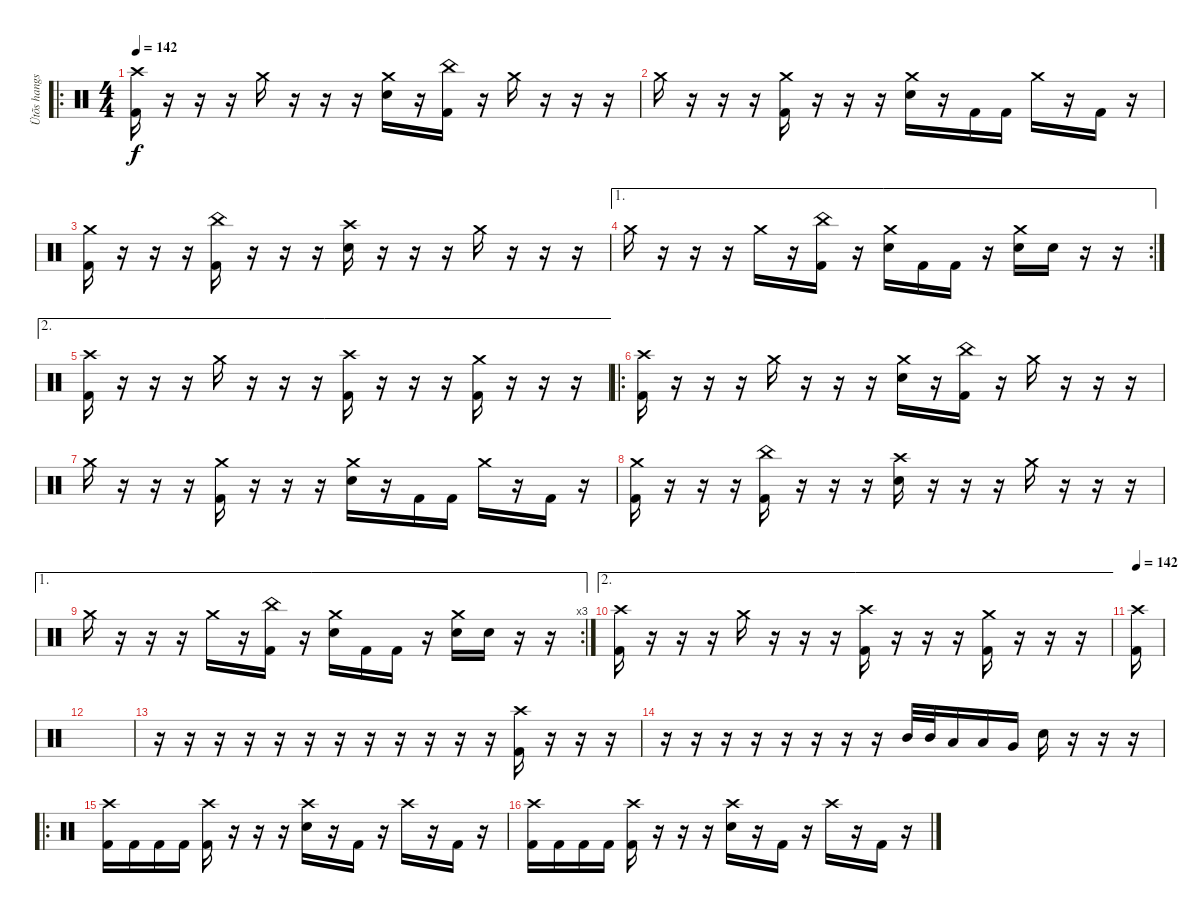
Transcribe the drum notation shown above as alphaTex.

\track ("Ütõs hangszer" "Ütõs hangs") {instrument percussion}
\staff {score}
\articulation defaults
\ro
\ts (4 4)
\tempo 142
\clef neutral
\ks c
("Crash high (hit)" "Kick (hit) 2").16{dy f} r.16 r.16 r.16 "Crash medium (hit)".16 r.16 r.16 r.16 ("Crash medium (hit)" "Electric Snare (hit)").16 r.16 ("China (hit)" "Kick (hit) 2").16 r.16 "Crash medium (hit)".16 r.16 r.16 r.16 |
"Crash medium (hit)".16 r.16 r.16 r.16 ("Crash medium (hit)" "Kick (hit) 2").16 r.16 r.16 r.16 ("Crash medium (hit)" "Electric Snare (hit)").16 r.16 "Kick (hit) 2".16 "Kick (hit) 2".16 "Crash medium (hit)".16 r.16 "Kick (hit) 2".16 r.16 |
("Crash medium (hit)" "Kick (hit) 2").16 r.16 r.16 r.16 ("China (hit)" "Kick (hit) 2").16 r.16 r.16 r.16 ("Crash high (hit)" "Electric Snare (hit)").16 r.16 r.16 r.16 "Crash medium (hit)".16 r.16 r.16 r.16 |
\ae 1
\rc 2 "Crash medium (hit)".16
r.16 r.16 r.16 "Crash medium (hit)".16 r.16 ("China (hit)" "Kick (hit) 2").16 r.16 ("Crash medium (hit)" "Electric Snare (hit)").16 "Kick (hit) 2".16 "Kick (hit) 2".16 r.16 ("Crash medium (hit)" "Electric Snare (hit)").16 "Electric Snare (hit)".16 r.16 r.16 |
\ae 2
("Crash high (hit)" "Kick (hit) 2").16 r.16 r.16 r.16 "Crash medium (hit)".16 r.16 r.16 r.16 ("Crash high (hit)" "Kick (hit) 2").16 r.16 r.16 r.16 ("Crash medium (hit)" "Kick (hit) 2").16 r.16 r.16 r.16 |
\ro
("Crash high (hit)" "Kick (hit) 2").16 r.16 r.16 r.16 "Crash medium (hit)".16 r.16 r.16 r.16 ("Crash medium (hit)" "Electric Snare (hit)").16 r.16 ("China (hit)" "Kick (hit) 2").16 r.16 "Crash medium (hit)".16 r.16 r.16 r.16 |
"Crash medium (hit)".16 r.16 r.16 r.16 ("Crash medium (hit)" "Kick (hit) 2").16 r.16 r.16 r.16 ("Crash medium (hit)" "Electric Snare (hit)").16 r.16 "Kick (hit) 2".16 "Kick (hit) 2".16 "Crash medium (hit)".16 r.16 "Kick (hit) 2".16 r.16 |
("Crash medium (hit)" "Kick (hit) 2").16 r.16 r.16 r.16 ("China (hit)" "Kick (hit) 2").16 r.16 r.16 r.16 ("Crash high (hit)" "Electric Snare (hit)").16 r.16 r.16 r.16 "Crash medium (hit)".16 r.16 r.16 r.16 |
\ae 1
\rc 3 "Crash medium (hit)".16
r.16 r.16 r.16 "Crash medium (hit)".16 r.16 ("China (hit)" "Kick (hit) 2").16 r.16 ("Crash medium (hit)" "Electric Snare (hit)").16 "Kick (hit) 2".16 "Kick (hit) 2".16 r.16 ("Crash medium (hit)" "Electric Snare (hit)").16 "Electric Snare (hit)".16 r.16 r.16 |
\ae 2
("Crash high (hit)" "Kick (hit) 2").16 r.16 r.16 r.16 "Crash medium (hit)".16 r.16 r.16 r.16 ("Crash high (hit)" "Kick (hit) 2").16 r.16 r.16 r.16 ("Crash medium (hit)" "Kick (hit) 2").16 r.16 r.16 r.16 |
\tempo 142
("Crash high (hit)" "Kick (hit) 2").16 |
|
r.16 r.16 r.16 r.16 r.16 r.16 r.16 r.16 r.16 r.16 r.16 r.16 ("Crash high (hit)" "Kick (hit) 2").16 r.16 r.16 r.16 |
r.16 r.16 r.16 r.16 r.16 r.16 r.16 r.16 "Mid Tom (hit)".32 "Mid Tom (hit)".32 "Low Tom (hit)".16 "Low Tom (hit)".16 "Very Low Tom (hit)".16 "Electric Snare (hit)".16 r.16 r.16 r.16 |
\ro
("Crash high (hit)" "Kick (hit) 2").16 "Kick (hit) 2".16 "Kick (hit) 2".16 "Kick (hit) 2".16 ("Crash high (hit)" "Kick (hit) 2").16 r.16 r.16 r.16 ("Crash high (hit)" "Electric Snare (hit)").16 r.16 "Kick (hit) 2".16 r.16 "Crash high (hit)".16 r.16 "Kick (hit) 2".16 r.16 |
("Crash high (hit)" "Kick (hit) 2").16 "Kick (hit) 2".16 "Kick (hit) 2".16 "Kick (hit) 2".16 ("Crash high (hit)" "Kick (hit) 2").16 r.16 r.16 r.16 ("Crash high (hit)" "Electric Snare (hit)").16 r.16 "Kick (hit) 2".16 r.16 "Crash high (hit)".16 r.16 "Kick (hit) 2".16 r.16
